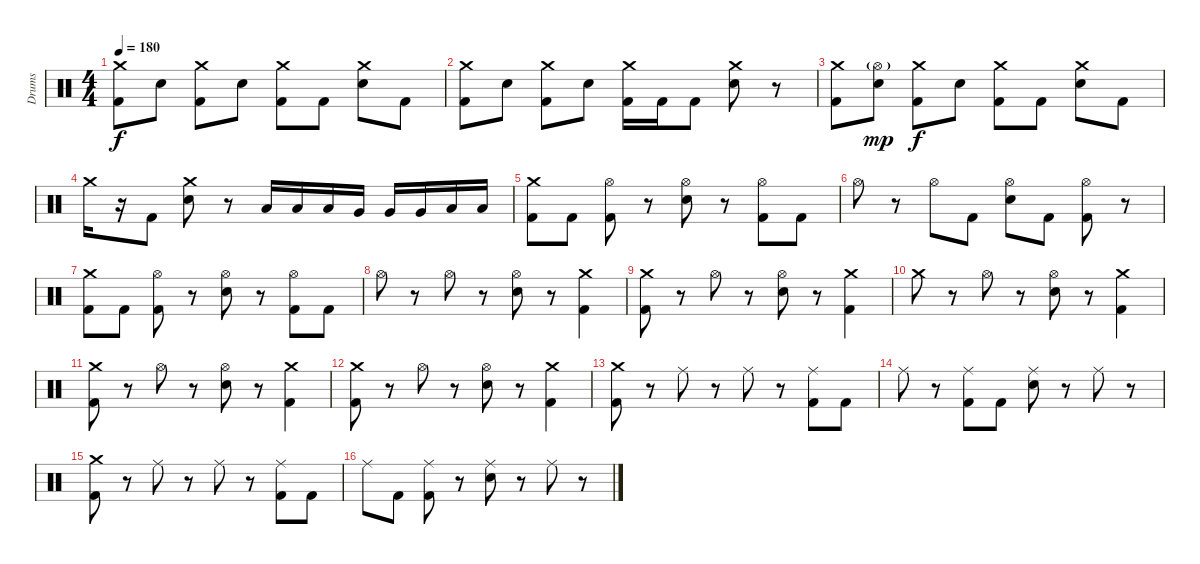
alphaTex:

\track ("Drums" "Drums") {instrument percussion}
\staff {score}
\articulation defaults
\ts (4 4)
\tempo 180
\clef neutral
\ks c
("Crash medium (hit)" "Kick (hit) 2").8{dy f} "Electric Snare (hit)".8 ("Crash medium (hit)" "Kick (hit) 2").8 "Electric Snare (hit)".8 ("Crash medium (hit)" "Kick (hit) 2").8 "Kick (hit) 2".8 ("Crash medium (hit)" "Electric Snare (hit)").8 "Kick (hit) 2".8 |
("Crash medium (hit)" "Kick (hit) 2").8 "Electric Snare (hit)".8 ("Crash medium (hit)" "Kick (hit) 2").8 "Electric Snare (hit)".8 ("Crash medium (hit)" "Kick (hit) 2").16 "Kick (hit) 2".16 "Kick (hit) 2".8 ("Crash medium (hit)" "Electric Snare (hit)").8 r.8 |
("Crash medium (hit)" "Kick (hit) 2").8 ("Hi-Hat (open)"{g} "Electric Snare (hit)").8{dy mp} ("Crash medium (hit)" "Kick (hit) 2").8{dy f} "Electric Snare (hit)".8 ("Crash medium (hit)" "Kick (hit) 2").8 "Kick (hit) 2".8 ("Crash medium (hit)" "Electric Snare (hit)").8 "Kick (hit) 2".8 |
"Crash medium (hit)".16 r.16 "Kick (hit) 2".8 ("Crash medium (hit)" "Electric Snare (hit)").8 r.8 "Low Tom (hit)".16 "Low Tom (hit)".16 "Low Tom (hit)".16 "Very Low Tom (hit)".16 "Very Low Tom (hit)".16 "Very Low Tom (hit)".16 "Low Floor Tom (hit)".16 "Low Floor Tom (hit)".16 |
("Crash medium (hit)" "Kick (hit) 2").8 "Kick (hit) 2".8 ("Hi-Hat (open)" "Kick (hit) 2").8 r.8 ("Hi-Hat (open)" "Electric Snare (hit)").8 r.8 ("Hi-Hat (open)" "Kick (hit) 2").8 "Kick (hit) 2".8 |
"Hi-Hat (open)".8 r.8 "Hi-Hat (open)".8 "Kick (hit) 2".8 ("Hi-Hat (open)" "Electric Snare (hit)").8 "Kick (hit) 2".8 ("Hi-Hat (open)" "Kick (hit) 2").8 r.8 |
("Crash medium (hit)" "Kick (hit) 2").8 "Kick (hit) 2".8 ("Hi-Hat (open)" "Kick (hit) 2").8 r.8 ("Hi-Hat (open)" "Electric Snare (hit)").8 r.8 ("Hi-Hat (open)" "Kick (hit) 2").8 "Kick (hit) 2".8 |
"Hi-Hat (open)".8 r.8 "Hi-Hat (open)".8 r.8 ("Hi-Hat (open)" "Electric Snare (hit)").8 r.8 ("Crash medium (hit)" "Kick (hit) 2").4 |
("Crash medium (hit)" "Kick (hit) 2").8 r.8 "Hi-Hat (open)".8 r.8 ("Hi-Hat (open)" "Electric Snare (hit)").8 r.8 ("Crash medium (hit)" "Kick (hit) 2").4 |
"Crash medium (hit)".8 r.8 "Hi-Hat (open)".8 r.8 ("Hi-Hat (open)" "Electric Snare (hit)").8 r.8 ("Crash medium (hit)" "Kick (hit) 2").4 |
("Crash medium (hit)" "Kick (hit) 2").8 r.8 "Hi-Hat (open)".8 r.8 ("Hi-Hat (open)" "Electric Snare (hit)").8 r.8 ("Crash medium (hit)" "Kick (hit) 2").4 |
("Crash medium (hit)" "Kick (hit) 2").8 r.8 "Hi-Hat (open)".8 r.8 ("Hi-Hat (open)" "Electric Snare (hit)").8 r.8 ("Crash medium (hit)" "Kick (hit) 2").4 |
("Crash medium (hit)" "Kick (hit) 2").8 r.8 "Ride (middle)".8 r.8 "Ride (middle)".8 r.8 ("Ride (middle)" "Kick (hit) 2").8 "Kick (hit) 2".8 |
"Ride (middle)".8 r.8 ("Ride (middle)" "Kick (hit) 2").8 "Kick (hit) 2".8 ("Ride (middle)" "Electric Snare (hit)").8 r.8 "Ride (middle)".8 r.8 |
("Crash medium (hit)" "Kick (hit) 2").8 r.8 "Ride (middle)".8 r.8 "Ride (middle)".8 r.8 ("Ride (middle)" "Kick (hit) 2").8 "Kick (hit) 2".8 |
"Ride (middle)".8 "Kick (hit) 2".8 ("Ride (middle)" "Kick (hit) 2").8 r.8 ("Ride (middle)" "Electric Snare (hit)").8 r.8 "Ride (middle)".8 r.8
